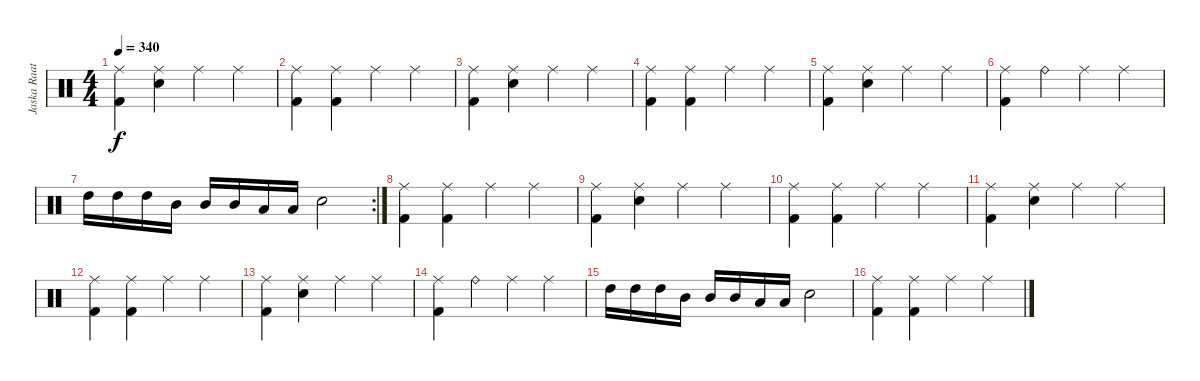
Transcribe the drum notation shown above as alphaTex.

\track ("Jaska Raatkinen" "Jaska Raat") {instrument percussion}
\staff {score}
\articulation defaults
\ts (4 4)
\tempo 340
\clef neutral
\ks c
("Ride (middle)" "Kick (hit) 2").4{dy f} ("Ride (middle)" "Snare (hit) 2").4 "Ride (middle)".4 "Ride (middle)".4 |
("Ride (middle)" "Kick (hit) 2").4 ("Ride (middle)" "Kick (hit) 2").4 "Ride (middle)".4 "Ride (middle)".4 |
("Ride (middle)" "Kick (hit) 2").4 ("Ride (middle)" "Snare (hit) 2").4 "Ride (middle)".4 "Ride (middle)".4 |
("Ride (middle)" "Kick (hit) 2").4 ("Ride (middle)" "Kick (hit) 2").4 "Ride (middle)".4 "Ride (middle)".4 |
("Ride (middle)" "Kick (hit) 2").4 ("Ride (middle)" "Snare (hit) 2").4 "Ride (middle)".4 "Ride (middle)".4 |
("Ride (middle)" "Kick (hit) 2").4 "Ride (bell)".4 "Ride (middle)".4 "Ride (middle)".4 |
\rc 2 "High Tom (hit)".16 "High Tom (hit)".16 "High Tom (hit)".16 "Mid Tom (hit)".16 "Mid Tom (hit)".16 "Mid Tom (hit)".16 "Low Tom (hit)".16 "Low Tom (hit)".16 "Snare (hit) 2".2
|
("Ride (middle)" "Kick (hit) 2").4 ("Ride (middle)" "Kick (hit) 2").4 "Ride (middle)".4 "Ride (middle)".4 |
("Ride (middle)" "Kick (hit) 2").4 ("Ride (middle)" "Snare (hit) 2").4 "Ride (middle)".4 "Ride (middle)".4 |
("Ride (middle)" "Kick (hit) 2").4 ("Ride (middle)" "Kick (hit) 2").4 "Ride (middle)".4 "Ride (middle)".4 |
("Ride (middle)" "Kick (hit) 2").4 ("Ride (middle)" "Snare (hit) 2").4 "Ride (middle)".4 "Ride (middle)".4 |
("Ride (middle)" "Kick (hit) 2").4 ("Ride (middle)" "Kick (hit) 2").4 "Ride (middle)".4 "Ride (middle)".4 |
("Ride (middle)" "Kick (hit) 2").4 ("Ride (middle)" "Snare (hit) 2").4 "Ride (middle)".4 "Ride (middle)".4 |
("Ride (middle)" "Kick (hit) 2").4 "Ride (bell)".4 "Ride (middle)".4 "Ride (middle)".4 |
"High Tom (hit)".16 "High Tom (hit)".16 "High Tom (hit)".16 "Mid Tom (hit)".16 "Mid Tom (hit)".16 "Mid Tom (hit)".16 "Low Tom (hit)".16 "Low Tom (hit)".16 "Snare (hit) 2".2 |
("Ride (middle)" "Kick (hit) 2").4 ("Ride (middle)" "Kick (hit) 2").4 "Ride (middle)".4 "Ride (middle)".4
